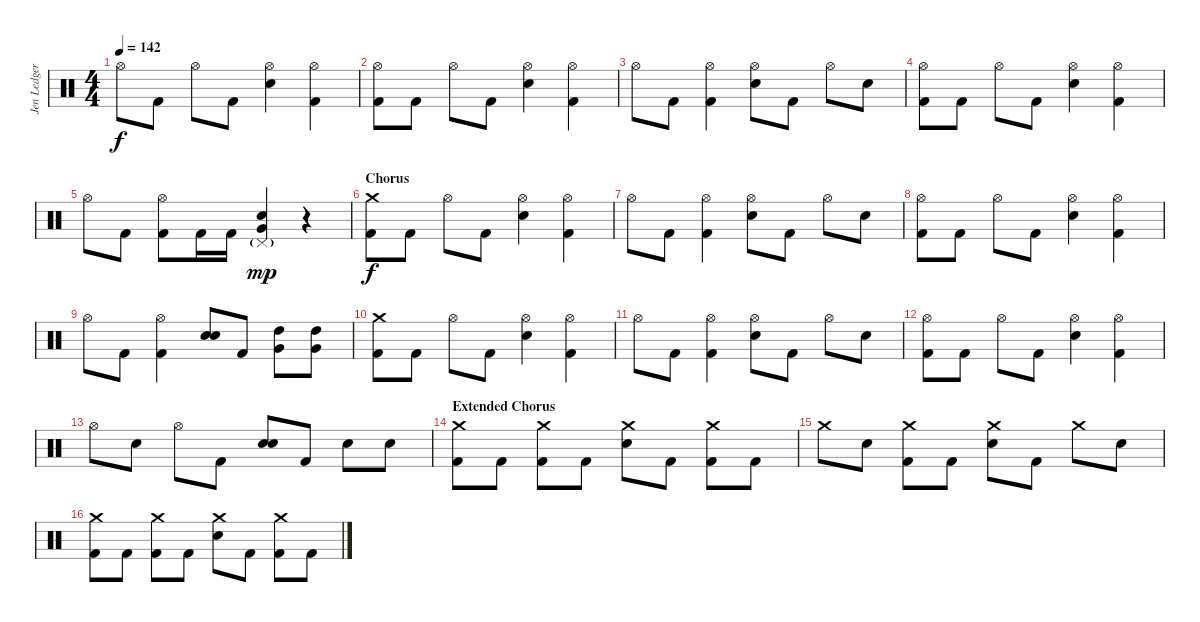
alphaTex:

\track ("Jen Ledger" "Jen Ledger") {instrument percussion}
\staff {score}
\articulation defaults
\ts (4 4)
\tempo 142
\clef neutral
\ks c "Hi-Hat (open)".8{dy f} "Kick (hit) 2".8 "Hi-Hat (open)".8 "Kick (hit) 2".8
("Hi-Hat (open)" "Electric Snare (hit)").4 ("Hi-Hat (open)" "Kick (hit) 2").4 |
("Hi-Hat (open)" "Kick (hit) 2").8 "Kick (hit) 2".8 "Hi-Hat (open)".8 "Kick (hit) 2".8 ("Hi-Hat (open)" "Electric Snare (hit)").4 ("Hi-Hat (open)" "Kick (hit) 2").4 |
"Hi-Hat (open)".8 "Kick (hit) 2".8 ("Hi-Hat (open)" "Kick (hit) 2").4 ("Hi-Hat (open)" "Electric Snare (hit)").8 "Kick (hit) 2".8 "Hi-Hat (open)".8 "Electric Snare (hit)".8 |
("Hi-Hat (open)" "Kick (hit) 2").8 "Kick (hit) 2".8 "Hi-Hat (open)".8 "Kick (hit) 2".8 ("Hi-Hat (open)" "Electric Snare (hit)").4 ("Hi-Hat (open)" "Kick (hit) 2").4 |
"Hi-Hat (open)".8 "Kick (hit) 2".8 ("Hi-Hat (open)" "Kick (hit) 2").8 "Kick (hit) 2".16 "Kick (hit) 2".16 ("Electric Snare (hit)" "Very Low Tom (hit)" "Pedal Hi-Hat (hit)"{g}).4{dy mp} r.4 |
\section ("" "Chorus")
("Crash medium (hit)" "Kick (hit) 2").8{dy f} "Kick (hit) 2".8 "Hi-Hat (open)".8 "Kick (hit) 2".8 ("Hi-Hat (open)" "Electric Snare (hit)").4 ("Hi-Hat (open)" "Kick (hit) 2").4 |
"Hi-Hat (open)".8 "Kick (hit) 2".8 ("Hi-Hat (open)" "Kick (hit) 2").4 ("Hi-Hat (open)" "Electric Snare (hit)").8 "Kick (hit) 2".8 "Hi-Hat (open)".8 "Electric Snare (hit)".8 |
("Hi-Hat (open)" "Kick (hit) 2").8 "Kick (hit) 2".8 "Hi-Hat (open)".8 "Kick (hit) 2".8 ("Hi-Hat (open)" "Electric Snare (hit)").4 ("Hi-Hat (open)" "Kick (hit) 2").4 |
"Hi-Hat (open)".8 "Kick (hit) 2".8 ("Hi-Hat (open)" "Kick (hit) 2").4 ("Electric Snare (hit)" "Electric Snare (hit)").8{bd 60} "Kick (hit) 2".8 ("High Tom (hit)" "Very Low Tom (hit)").8 ("High Tom (hit)" "Very Low Tom (hit)").8 |
("Crash medium (hit)" "Kick (hit) 2").8 "Kick (hit) 2".8 "Hi-Hat (open)".8 "Kick (hit) 2".8 ("Hi-Hat (open)" "Electric Snare (hit)").4 ("Hi-Hat (open)" "Kick (hit) 2").4 |
"Hi-Hat (open)".8 "Kick (hit) 2".8 ("Hi-Hat (open)" "Kick (hit) 2").4 ("Hi-Hat (open)" "Electric Snare (hit)").8 "Kick (hit) 2".8 "Hi-Hat (open)".8 "Electric Snare (hit)".8 |
("Hi-Hat (open)" "Kick (hit) 2").8 "Kick (hit) 2".8 "Hi-Hat (open)".8 "Kick (hit) 2".8 ("Hi-Hat (open)" "Electric Snare (hit)").4 ("Hi-Hat (open)" "Kick (hit) 2").4 |
"Hi-Hat (open)".8 "Electric Snare (hit)".8 "Hi-Hat (open)".8 "Kick (hit) 2".8 ("Electric Snare (hit)" "Electric Snare (hit)").8{bd 60} "Kick (hit) 2".8 "Electric Snare (hit)".8 "Electric Snare (hit)".8 |
\section ("" "Extended Chorus")
("Crash medium (hit)" "Kick (hit) 2").8 "Kick (hit) 2".8 ("Crash medium (hit)" "Kick (hit) 2").8 "Kick (hit) 2".8 ("Crash medium (hit)" "Electric Snare (hit)").8 "Kick (hit) 2".8 ("Crash medium (hit)" "Kick (hit) 2").8 "Kick (hit) 2".8 |
"Crash medium (hit)".8 "Electric Snare (hit)".8 ("Crash medium (hit)" "Kick (hit) 2").8 "Kick (hit) 2".8 ("Crash medium (hit)" "Electric Snare (hit)").8 "Kick (hit) 2".8 "Crash medium (hit)".8 "Electric Snare (hit)".8 |
("Crash medium (hit)" "Kick (hit) 2").8 "Kick (hit) 2".8 ("Crash medium (hit)" "Kick (hit) 2").8 "Kick (hit) 2".8 ("Crash medium (hit)" "Electric Snare (hit)").8 "Kick (hit) 2".8 ("Crash medium (hit)" "Kick (hit) 2").8 "Kick (hit) 2".8
